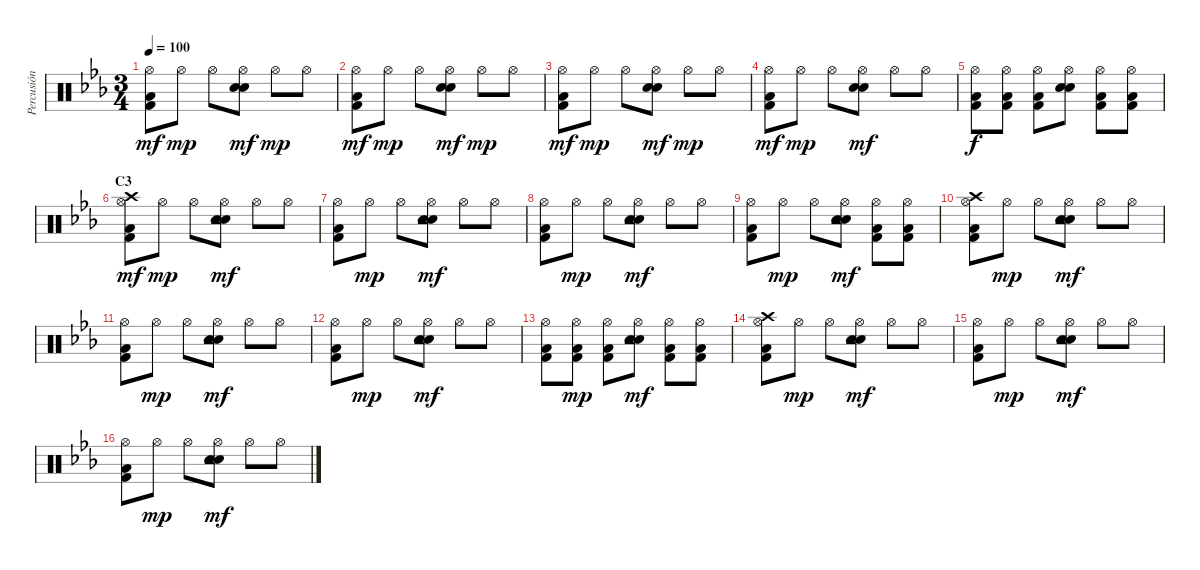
\track ("Percusión" "Percusión") {instrument percussion}
\staff {score}
\articulation defaults
\ts (3 4)
\tempo 100
\clef neutral
\ks eb
("Hi-Hat (open)" "Low Floor Tom (hit)" "Kick (hit) 2").8{dy mf} "Hi-Hat (open)".8{dy mp} "Hi-Hat (open)".8 ("Hi-Hat (open)" "Electric Snare (hit)" "Snare (hit) 2").8{dy mf} "Hi-Hat (open)".8{dy mp} "Hi-Hat (open)".8 |
("Hi-Hat (open)" "Low Floor Tom (hit)" "Kick (hit) 2").8{dy mf} "Hi-Hat (open)".8{dy mp} "Hi-Hat (open)".8 ("Hi-Hat (open)" "Electric Snare (hit)" "Snare (hit) 2").8{dy mf} "Hi-Hat (open)".8{dy mp} "Hi-Hat (open)".8 |
("Hi-Hat (open)" "Low Floor Tom (hit)" "Kick (hit) 2").8{dy mf} "Hi-Hat (open)".8{dy mp} "Hi-Hat (open)".8 ("Hi-Hat (open)" "Electric Snare (hit)" "Snare (hit) 2").8{dy mf} "Hi-Hat (open)".8{dy mp} "Hi-Hat (open)".8 |
("Hi-Hat (open)" "Low Floor Tom (hit)" "Kick (hit) 2").8{dy mf} "Hi-Hat (open)".8{dy mp} "Hi-Hat (open)".8 ("Hi-Hat (open)" "Electric Snare (hit)" "Snare (hit) 2").8{dy mf} "Hi-Hat (open)".8 "Hi-Hat (open)".8 |
("Hi-Hat (open)" "Low Floor Tom (hit)" "Kick (hit) 2").8{dy f} ("Hi-Hat (open)" "Low Floor Tom (hit)" "Kick (hit) 2").8 ("Hi-Hat (open)" "Low Floor Tom (hit)" "Kick (hit) 2").8 ("Hi-Hat (open)" "Electric Snare (hit)" "Snare (hit) 2").8 ("Hi-Hat (open)" "Low Floor Tom (hit)" "Kick (hit) 2").8 ("Hi-Hat (open)" "Low Floor Tom (hit)" "Kick (hit) 2").8 |
\section ("" "C3")
("Hi-Hat (open)" "Low Floor Tom (hit)" "Kick (hit) 2" "Crash high (hit)").8{dy mf} "Hi-Hat (open)".8{dy mp} "Hi-Hat (open)".8 ("Hi-Hat (open)" "Electric Snare (hit)" "Snare (hit) 2" "Tambourine (hit)").8{dy mf} "Hi-Hat (open)".8 "Hi-Hat (open)".8 |
("Hi-Hat (open)" "Low Floor Tom (hit)" "Kick (hit) 2").8 "Hi-Hat (open)".8{dy mp} "Hi-Hat (open)".8 ("Hi-Hat (open)" "Electric Snare (hit)" "Snare (hit) 2" "Tambourine (hit)").8{dy mf} "Hi-Hat (open)".8 "Hi-Hat (open)".8 |
("Hi-Hat (open)" "Low Floor Tom (hit)" "Kick (hit) 2").8 "Hi-Hat (open)".8{dy mp} "Hi-Hat (open)".8 ("Hi-Hat (open)" "Electric Snare (hit)" "Snare (hit) 2" "Tambourine (hit)").8{dy mf} "Hi-Hat (open)".8 "Hi-Hat (open)".8 |
("Hi-Hat (open)" "Low Floor Tom (hit)" "Kick (hit) 2").8 "Hi-Hat (open)".8{dy mp} "Hi-Hat (open)".8 ("Hi-Hat (open)" "Electric Snare (hit)" "Snare (hit) 2" "Tambourine (hit)").8{dy mf} ("Hi-Hat (open)" "Low Floor Tom (hit)" "Kick (hit) 2").8 ("Hi-Hat (open)" "Low Floor Tom (hit)" "Kick (hit) 2").8 |
("Hi-Hat (open)" "Low Floor Tom (hit)" "Kick (hit) 2" "Crash high (hit)").8 "Hi-Hat (open)".8{dy mp} "Hi-Hat (open)".8 ("Hi-Hat (open)" "Electric Snare (hit)" "Snare (hit) 2" "Tambourine (hit)").8{dy mf} "Hi-Hat (open)".8 "Hi-Hat (open)".8 |
("Hi-Hat (open)" "Low Floor Tom (hit)" "Kick (hit) 2").8 "Hi-Hat (open)".8{dy mp} "Hi-Hat (open)".8 ("Hi-Hat (open)" "Electric Snare (hit)" "Snare (hit) 2" "Tambourine (hit)").8{dy mf} "Hi-Hat (open)".8 "Hi-Hat (open)".8 |
("Hi-Hat (open)" "Low Floor Tom (hit)" "Kick (hit) 2").8 "Hi-Hat (open)".8{dy mp} "Hi-Hat (open)".8 ("Hi-Hat (open)" "Electric Snare (hit)" "Snare (hit) 2" "Tambourine (hit)").8{dy mf} "Hi-Hat (open)".8 "Hi-Hat (open)".8 |
("Hi-Hat (open)" "Low Floor Tom (hit)" "Kick (hit) 2").8 ("Hi-Hat (open)" "Low Floor Tom (hit)" "Kick (hit) 2").8{dy mp} ("Hi-Hat (open)" "Low Floor Tom (hit)" "Kick (hit) 2").8 ("Hi-Hat (open)" "Electric Snare (hit)" "Snare (hit) 2" "Tambourine (hit)").8{dy mf} ("Hi-Hat (open)" "Low Floor Tom (hit)" "Kick (hit) 2").8 ("Hi-Hat (open)" "Low Floor Tom (hit)" "Kick (hit) 2").8 |
("Hi-Hat (open)" "Low Floor Tom (hit)" "Kick (hit) 2" "Crash high (hit)").8 "Hi-Hat (open)".8{dy mp} "Hi-Hat (open)".8 ("Hi-Hat (open)" "Electric Snare (hit)" "Snare (hit) 2" "Tambourine (hit)").8{dy mf} "Hi-Hat (open)".8 "Hi-Hat (open)".8 |
("Hi-Hat (open)" "Low Floor Tom (hit)" "Kick (hit) 2").8 "Hi-Hat (open)".8{dy mp} "Hi-Hat (open)".8 ("Hi-Hat (open)" "Electric Snare (hit)" "Snare (hit) 2" "Tambourine (hit)").8{dy mf} "Hi-Hat (open)".8 "Hi-Hat (open)".8 |
("Hi-Hat (open)" "Low Floor Tom (hit)" "Kick (hit) 2").8 "Hi-Hat (open)".8{dy mp} "Hi-Hat (open)".8 ("Hi-Hat (open)" "Electric Snare (hit)" "Snare (hit) 2" "Tambourine (hit)").8{dy mf} "Hi-Hat (open)".8 "Hi-Hat (open)".8
